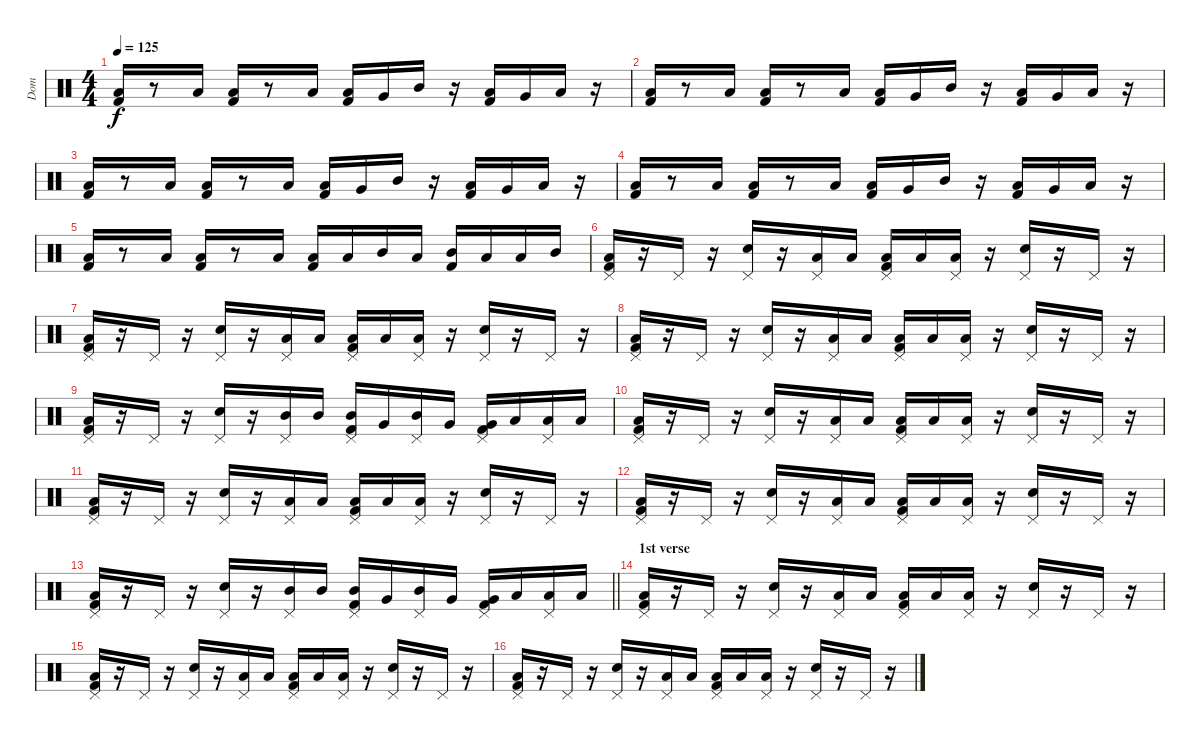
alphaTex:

\track ("Dom" "Dom") {instrument percussion}
\staff {score}
\articulation defaults
\ts (4 4)
\tempo 125
\clef neutral
\ks c
("Low Floor Tom (hit)" "Kick (hit) 2").16{dy f} r.8 "Low Floor Tom (hit)".16 ("Low Floor Tom (hit)" "Kick (hit) 2").16 r.8 "Low Floor Tom (hit)".16 ("Low Floor Tom (hit)" "Kick (hit) 2").16 "Very Low Tom (hit)".16 "Mid Tom (hit)".16 r.16 ("Low Floor Tom (hit)" "Kick (hit) 2").16 "Very Low Tom (hit)".16 "Low Floor Tom (hit)".16 r.16 |
("Low Floor Tom (hit)" "Kick (hit) 2").16 r.8 "Low Floor Tom (hit)".16 ("Low Floor Tom (hit)" "Kick (hit) 2").16 r.8 "Low Floor Tom (hit)".16 ("Low Floor Tom (hit)" "Kick (hit) 2").16 "Very Low Tom (hit)".16 "Mid Tom (hit)".16 r.16 ("Low Floor Tom (hit)" "Kick (hit) 2").16 "Very Low Tom (hit)".16 "Low Floor Tom (hit)".16 r.16 |
("Low Floor Tom (hit)" "Kick (hit) 2").16 r.8 "Low Floor Tom (hit)".16 ("Low Floor Tom (hit)" "Kick (hit) 2").16 r.8 "Low Floor Tom (hit)".16 ("Low Floor Tom (hit)" "Kick (hit) 2").16 "Very Low Tom (hit)".16 "Mid Tom (hit)".16 r.16 ("Low Floor Tom (hit)" "Kick (hit) 2").16 "Very Low Tom (hit)".16 "Low Floor Tom (hit)".16 r.16 |
("Low Floor Tom (hit)" "Kick (hit) 2").16 r.8 "Low Floor Tom (hit)".16 ("Low Floor Tom (hit)" "Kick (hit) 2").16 r.8 "Low Floor Tom (hit)".16 ("Low Floor Tom (hit)" "Kick (hit) 2").16 "Very Low Tom (hit)".16 "Mid Tom (hit)".16 r.16 ("Low Floor Tom (hit)" "Kick (hit) 2").16 "Very Low Tom (hit)".16 "Low Floor Tom (hit)".16 r.16 |
("Low Floor Tom (hit)" "Kick (hit) 2").16 r.8 "Low Floor Tom (hit)".16 ("Low Floor Tom (hit)" "Kick (hit) 2").16 r.8 "Low Floor Tom (hit)".16 ("Low Floor Tom (hit)" "Kick (hit) 2").16 "Low Floor Tom (hit)".16 "Mid Tom (hit)".16 "Low Floor Tom (hit)".16 ("Mid Tom (hit)" "Kick (hit) 2").16 "Low Floor Tom (hit)".16 "Low Floor Tom (hit)".16 "Mid Tom (hit)".16 |
("Low Floor Tom (hit)" "Pedal Hi-Hat (hit)" "Kick (hit) 2").16 r.16 "Pedal Hi-Hat (hit)".16 r.16 ("Snare (hit) 2" "Pedal Hi-Hat (hit)").16 r.16 ("Low Floor Tom (hit)" "Pedal Hi-Hat (hit)").16 "Low Floor Tom (hit)".16 ("Low Floor Tom (hit)" "Pedal Hi-Hat (hit)" "Kick (hit) 2").16 "Low Floor Tom (hit)".16 ("Low Floor Tom (hit)" "Pedal Hi-Hat (hit)").16 r.16 ("Snare (hit) 2" "Pedal Hi-Hat (hit)").16 r.16 "Pedal Hi-Hat (hit)".16 r.16 |
("Low Floor Tom (hit)" "Pedal Hi-Hat (hit)" "Kick (hit) 2").16 r.16 "Pedal Hi-Hat (hit)".16 r.16 ("Snare (hit) 2" "Pedal Hi-Hat (hit)").16 r.16 ("Low Floor Tom (hit)" "Pedal Hi-Hat (hit)").16 "Low Floor Tom (hit)".16 ("Low Floor Tom (hit)" "Pedal Hi-Hat (hit)" "Kick (hit) 2").16 "Low Floor Tom (hit)".16 ("Low Floor Tom (hit)" "Pedal Hi-Hat (hit)").16 r.16 ("Snare (hit) 2" "Pedal Hi-Hat (hit)").16 r.16 "Pedal Hi-Hat (hit)".16 r.16 |
("Low Floor Tom (hit)" "Pedal Hi-Hat (hit)" "Kick (hit) 2").16 r.16 "Pedal Hi-Hat (hit)".16 r.16 ("Snare (hit) 2" "Pedal Hi-Hat (hit)").16 r.16 ("Low Floor Tom (hit)" "Pedal Hi-Hat (hit)").16 "Low Floor Tom (hit)".16 ("Low Floor Tom (hit)" "Pedal Hi-Hat (hit)" "Kick (hit) 2").16 "Low Floor Tom (hit)".16 ("Low Floor Tom (hit)" "Pedal Hi-Hat (hit)").16 r.16 ("Snare (hit) 2" "Pedal Hi-Hat (hit)").16 r.16 "Pedal Hi-Hat (hit)".16 r.16 |
("Low Floor Tom (hit)" "Pedal Hi-Hat (hit)" "Kick (hit) 2").16 r.16 "Pedal Hi-Hat (hit)".16 r.16 ("Snare (hit) 2" "Pedal Hi-Hat (hit)").16 r.16 ("Mid Tom (hit)" "Pedal Hi-Hat (hit)").16 "Mid Tom (hit)".16 ("Mid Tom (hit)" "Pedal Hi-Hat (hit)" "Kick (hit) 2").16 "Very Low Tom (hit)".16 ("Mid Tom (hit)" "Pedal Hi-Hat (hit)").16 "Very Low Tom (hit)".16 ("Very Low Tom (hit)" "Pedal Hi-Hat (hit)" "Kick (hit) 2").16 "Low Floor Tom (hit)".16 ("Low Floor Tom (hit)" "Pedal Hi-Hat (hit)").16 "Low Floor Tom (hit)".16 |
("Low Floor Tom (hit)" "Pedal Hi-Hat (hit)" "Kick (hit) 2").16 r.16 "Pedal Hi-Hat (hit)".16 r.16 ("Snare (hit) 2" "Pedal Hi-Hat (hit)").16 r.16 ("Low Floor Tom (hit)" "Pedal Hi-Hat (hit)").16 "Low Floor Tom (hit)".16 ("Low Floor Tom (hit)" "Pedal Hi-Hat (hit)" "Kick (hit) 2").16 "Low Floor Tom (hit)".16 ("Low Floor Tom (hit)" "Pedal Hi-Hat (hit)").16 r.16 ("Snare (hit) 2" "Pedal Hi-Hat (hit)").16 r.16 "Pedal Hi-Hat (hit)".16 r.16 |
("Low Floor Tom (hit)" "Pedal Hi-Hat (hit)" "Kick (hit) 2").16 r.16 "Pedal Hi-Hat (hit)".16 r.16 ("Snare (hit) 2" "Pedal Hi-Hat (hit)").16 r.16 ("Low Floor Tom (hit)" "Pedal Hi-Hat (hit)").16 "Low Floor Tom (hit)".16 ("Low Floor Tom (hit)" "Pedal Hi-Hat (hit)" "Kick (hit) 2").16 "Low Floor Tom (hit)".16 ("Low Floor Tom (hit)" "Pedal Hi-Hat (hit)").16 r.16 ("Snare (hit) 2" "Pedal Hi-Hat (hit)").16 r.16 "Pedal Hi-Hat (hit)".16 r.16 |
("Low Floor Tom (hit)" "Pedal Hi-Hat (hit)" "Kick (hit) 2").16 r.16 "Pedal Hi-Hat (hit)".16 r.16 ("Snare (hit) 2" "Pedal Hi-Hat (hit)").16 r.16 ("Low Floor Tom (hit)" "Pedal Hi-Hat (hit)").16 "Low Floor Tom (hit)".16 ("Low Floor Tom (hit)" "Pedal Hi-Hat (hit)" "Kick (hit) 2").16 "Low Floor Tom (hit)".16 ("Low Floor Tom (hit)" "Pedal Hi-Hat (hit)").16 r.16 ("Snare (hit) 2" "Pedal Hi-Hat (hit)").16 r.16 "Pedal Hi-Hat (hit)".16 r.16 |
\barLineRight lightlight
("Low Floor Tom (hit)" "Pedal Hi-Hat (hit)" "Kick (hit) 2").16 r.16 "Pedal Hi-Hat (hit)".16 r.16 ("Snare (hit) 2" "Pedal Hi-Hat (hit)").16 r.16 ("Mid Tom (hit)" "Pedal Hi-Hat (hit)").16 "Mid Tom (hit)".16 ("Mid Tom (hit)" "Pedal Hi-Hat (hit)" "Kick (hit) 2").16 "Very Low Tom (hit)".16 ("Mid Tom (hit)" "Pedal Hi-Hat (hit)").16 "Very Low Tom (hit)".16 ("Very Low Tom (hit)" "Pedal Hi-Hat (hit)" "Kick (hit) 2").16 "Low Floor Tom (hit)".16 ("Low Floor Tom (hit)" "Pedal Hi-Hat (hit)").16 "Low Floor Tom (hit)".16 |
\section ("" "1st verse")
("Low Floor Tom (hit)" "Pedal Hi-Hat (hit)" "Kick (hit) 2").16 r.16 "Pedal Hi-Hat (hit)".16 r.16 ("Snare (hit) 2" "Pedal Hi-Hat (hit)").16 r.16 ("Low Floor Tom (hit)" "Pedal Hi-Hat (hit)").16 "Low Floor Tom (hit)".16 ("Low Floor Tom (hit)" "Pedal Hi-Hat (hit)" "Kick (hit) 2").16 "Low Floor Tom (hit)".16 ("Low Floor Tom (hit)" "Pedal Hi-Hat (hit)").16 r.16 ("Snare (hit) 2" "Pedal Hi-Hat (hit)").16 r.16 "Pedal Hi-Hat (hit)".16 r.16 |
("Low Floor Tom (hit)" "Pedal Hi-Hat (hit)" "Kick (hit) 2").16 r.16 "Pedal Hi-Hat (hit)".16 r.16 ("Snare (hit) 2" "Pedal Hi-Hat (hit)").16 r.16 ("Low Floor Tom (hit)" "Pedal Hi-Hat (hit)").16 "Low Floor Tom (hit)".16 ("Low Floor Tom (hit)" "Pedal Hi-Hat (hit)" "Kick (hit) 2").16 "Low Floor Tom (hit)".16 ("Low Floor Tom (hit)" "Pedal Hi-Hat (hit)").16 r.16 ("Snare (hit) 2" "Pedal Hi-Hat (hit)").16 r.16 "Pedal Hi-Hat (hit)".16 r.16 |
("Low Floor Tom (hit)" "Pedal Hi-Hat (hit)" "Kick (hit) 2").16 r.16 "Pedal Hi-Hat (hit)".16 r.16 ("Snare (hit) 2" "Pedal Hi-Hat (hit)").16 r.16 ("Low Floor Tom (hit)" "Pedal Hi-Hat (hit)").16 "Low Floor Tom (hit)".16 ("Low Floor Tom (hit)" "Pedal Hi-Hat (hit)" "Kick (hit) 2").16 "Low Floor Tom (hit)".16 ("Low Floor Tom (hit)" "Pedal Hi-Hat (hit)").16 r.16 ("Snare (hit) 2" "Pedal Hi-Hat (hit)").16 r.16 "Pedal Hi-Hat (hit)".16 r.16
